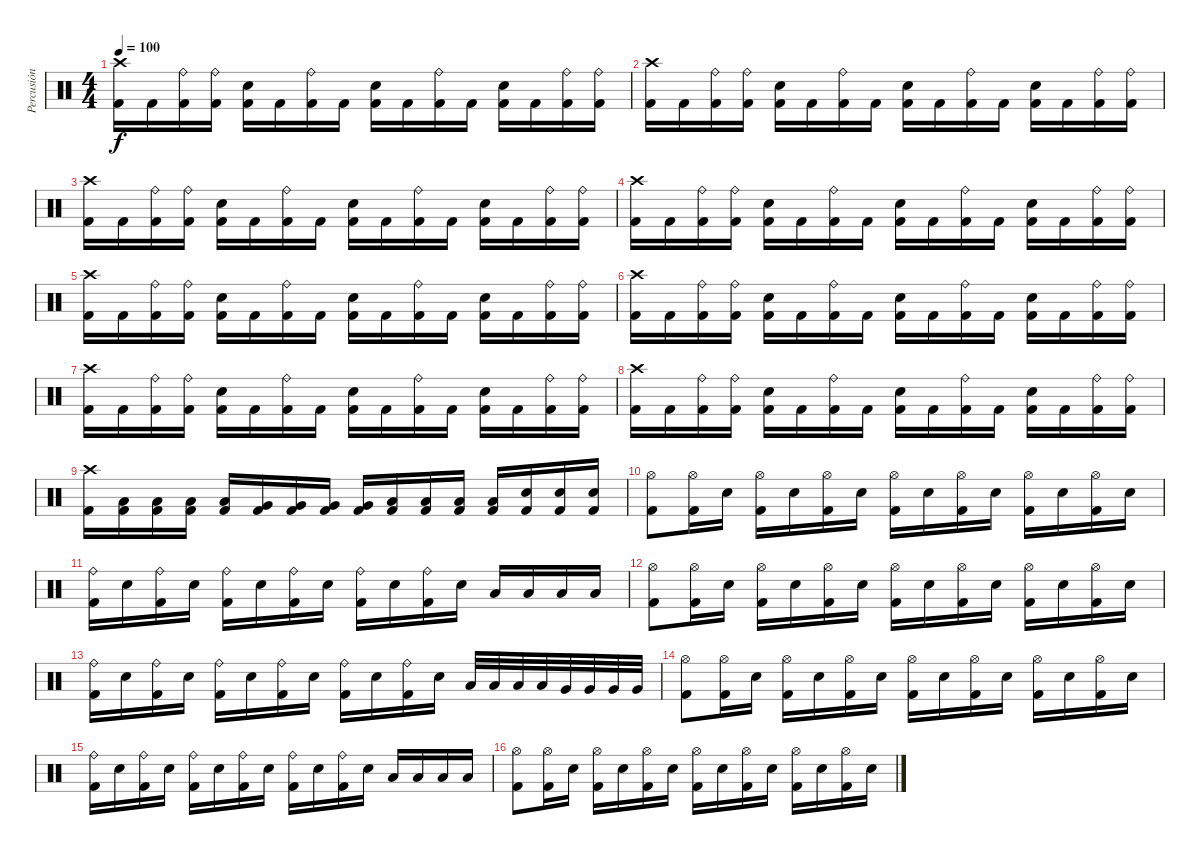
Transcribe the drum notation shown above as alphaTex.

\track ("Percusión" "Percusión") {instrument percussion}
\staff {score}
\articulation defaults
\ts (4 4)
\tempo 100
\clef neutral
\ks c
("Kick (hit) 2" "Crash high (hit)").16{dy f} "Kick (hit) 2".16 ("Kick (hit) 2" "Ride (bell)").16 ("Kick (hit) 2" "Ride (bell)").16 ("Kick (hit) 2" "Snare (hit) 2").16 "Kick (hit) 2".16 ("Kick (hit) 2" "Ride (bell)").16 "Kick (hit) 2".16 ("Kick (hit) 2" "Snare (hit) 2").16 "Kick (hit) 2".16 ("Kick (hit) 2" "Ride (bell)").16 "Kick (hit) 2".16 ("Kick (hit) 2" "Snare (hit) 2").16 "Kick (hit) 2".16 ("Kick (hit) 2" "Ride (bell)").16 ("Kick (hit) 2" "Ride (bell)").16 |
("Kick (hit) 2" "Crash high (hit)").16 "Kick (hit) 2".16 ("Kick (hit) 2" "Ride (bell)").16 ("Kick (hit) 2" "Ride (bell)").16 ("Kick (hit) 2" "Snare (hit) 2").16 "Kick (hit) 2".16 ("Kick (hit) 2" "Ride (bell)").16 "Kick (hit) 2".16 ("Kick (hit) 2" "Snare (hit) 2").16 "Kick (hit) 2".16 ("Kick (hit) 2" "Ride (bell)").16 "Kick (hit) 2".16 ("Kick (hit) 2" "Snare (hit) 2").16 "Kick (hit) 2".16 ("Kick (hit) 2" "Ride (bell)").16 ("Kick (hit) 2" "Ride (bell)").16 |
("Kick (hit) 2" "Crash high (hit)").16 "Kick (hit) 2".16 ("Kick (hit) 2" "Ride (bell)").16 ("Kick (hit) 2" "Ride (bell)").16 ("Kick (hit) 2" "Snare (hit) 2").16 "Kick (hit) 2".16 ("Kick (hit) 2" "Ride (bell)").16 "Kick (hit) 2".16 ("Kick (hit) 2" "Snare (hit) 2").16 "Kick (hit) 2".16 ("Kick (hit) 2" "Ride (bell)").16 "Kick (hit) 2".16 ("Kick (hit) 2" "Snare (hit) 2").16 "Kick (hit) 2".16 ("Kick (hit) 2" "Ride (bell)").16 ("Kick (hit) 2" "Ride (bell)").16 |
("Kick (hit) 2" "Crash high (hit)").16 "Kick (hit) 2".16 ("Kick (hit) 2" "Ride (bell)").16 ("Kick (hit) 2" "Ride (bell)").16 ("Kick (hit) 2" "Snare (hit) 2").16 "Kick (hit) 2".16 ("Kick (hit) 2" "Ride (bell)").16 "Kick (hit) 2".16 ("Kick (hit) 2" "Snare (hit) 2").16 "Kick (hit) 2".16 ("Kick (hit) 2" "Ride (bell)").16 "Kick (hit) 2".16 ("Kick (hit) 2" "Snare (hit) 2").16 "Kick (hit) 2".16 ("Kick (hit) 2" "Ride (bell)").16 ("Kick (hit) 2" "Ride (bell)").16 |
("Kick (hit) 2" "Crash high (hit)").16 "Kick (hit) 2".16 ("Kick (hit) 2" "Ride (bell)").16 ("Kick (hit) 2" "Ride (bell)").16 ("Kick (hit) 2" "Snare (hit) 2").16 "Kick (hit) 2".16 ("Kick (hit) 2" "Ride (bell)").16 "Kick (hit) 2".16 ("Kick (hit) 2" "Snare (hit) 2").16 "Kick (hit) 2".16 ("Kick (hit) 2" "Ride (bell)").16 "Kick (hit) 2".16 ("Kick (hit) 2" "Snare (hit) 2").16 "Kick (hit) 2".16 ("Kick (hit) 2" "Ride (bell)").16 ("Kick (hit) 2" "Ride (bell)").16 |
("Kick (hit) 2" "Crash high (hit)").16 "Kick (hit) 2".16 ("Kick (hit) 2" "Ride (bell)").16 ("Kick (hit) 2" "Ride (bell)").16 ("Kick (hit) 2" "Snare (hit) 2").16 "Kick (hit) 2".16 ("Kick (hit) 2" "Ride (bell)").16 "Kick (hit) 2".16 ("Kick (hit) 2" "Snare (hit) 2").16 "Kick (hit) 2".16 ("Kick (hit) 2" "Ride (bell)").16 "Kick (hit) 2".16 ("Kick (hit) 2" "Snare (hit) 2").16 "Kick (hit) 2".16 ("Kick (hit) 2" "Ride (bell)").16 ("Kick (hit) 2" "Ride (bell)").16 |
("Kick (hit) 2" "Crash high (hit)").16 "Kick (hit) 2".16 ("Kick (hit) 2" "Ride (bell)").16 ("Kick (hit) 2" "Ride (bell)").16 ("Kick (hit) 2" "Snare (hit) 2").16 "Kick (hit) 2".16 ("Kick (hit) 2" "Ride (bell)").16 "Kick (hit) 2".16 ("Kick (hit) 2" "Snare (hit) 2").16 "Kick (hit) 2".16 ("Kick (hit) 2" "Ride (bell)").16 "Kick (hit) 2".16 ("Kick (hit) 2" "Snare (hit) 2").16 "Kick (hit) 2".16 ("Kick (hit) 2" "Ride (bell)").16 ("Kick (hit) 2" "Ride (bell)").16 |
("Kick (hit) 2" "Crash high (hit)").16 "Kick (hit) 2".16 ("Kick (hit) 2" "Ride (bell)").16 ("Kick (hit) 2" "Ride (bell)").16 ("Kick (hit) 2" "Snare (hit) 2").16 "Kick (hit) 2".16 ("Kick (hit) 2" "Ride (bell)").16 "Kick (hit) 2".16 ("Kick (hit) 2" "Snare (hit) 2").16 "Kick (hit) 2".16 ("Kick (hit) 2" "Ride (bell)").16 "Kick (hit) 2".16 ("Kick (hit) 2" "Snare (hit) 2").16 "Kick (hit) 2".16 ("Kick (hit) 2" "Ride (bell)").16 ("Kick (hit) 2" "Ride (bell)").16 |
("Kick (hit) 2" "Crash high (hit)").16 ("Kick (hit) 2" "Low Tom (hit)").16 ("Kick (hit) 2" "Low Tom (hit)").16 ("Kick (hit) 2" "Low Tom (hit)").16 ("Kick (hit) 2" "Low Tom (hit)").16 ("Kick (hit) 2" "Very Low Tom (hit)").16 ("Kick (hit) 2" "Very Low Tom (hit)").16 ("Kick (hit) 2" "Very Low Tom (hit)").16 ("Kick (hit) 2" "Very Low Tom (hit)").16 ("Kick (hit) 2" "Low Floor Tom (hit)").16 ("Kick (hit) 2" "Low Floor Tom (hit)").16 ("Kick (hit) 2" "Low Floor Tom (hit)").16 ("Kick (hit) 2" "Low Floor Tom (hit)").16 ("Kick (hit) 2" "Snare (hit) 2").16 ("Kick (hit) 2" "Snare (hit) 2").16 ("Kick (hit) 2" "Snare (hit) 2").16 |
("Hi-Hat (open)" "Kick (hit) 2").8 ("Hi-Hat (open)" "Kick (hit) 2").16 "Snare (hit) 2".16 ("Hi-Hat (open)" "Kick (hit) 2").16 "Snare (hit) 2".16 ("Hi-Hat (open)" "Kick (hit) 2").16 "Snare (hit) 2".16 ("Hi-Hat (open)" "Kick (hit) 2").16 "Snare (hit) 2".16 ("Hi-Hat (open)" "Kick (hit) 2").16 "Snare (hit) 2".16 ("Hi-Hat (open)" "Kick (hit) 2").16 "Snare (hit) 2".16 ("Hi-Hat (open)" "Kick (hit) 2").16 "Snare (hit) 2".16 |
("Ride (bell)" "Kick (hit) 2").16 "Snare (hit) 2".16 ("Ride (bell)" "Kick (hit) 2").16 "Snare (hit) 2".16 ("Ride (bell)" "Kick (hit) 2").16 "Snare (hit) 2".16 ("Ride (bell)" "Kick (hit) 2").16 "Snare (hit) 2".16 ("Ride (bell)" "Kick (hit) 2").16 "Snare (hit) 2".16 ("Ride (bell)" "Kick (hit) 2").16 "Snare (hit) 2".16 "Low Tom (hit)".16 "Low Tom (hit)".16 "Low Floor Tom (hit)".16 "Low Floor Tom (hit)".16 |
("Hi-Hat (open)" "Kick (hit) 2").8 ("Hi-Hat (open)" "Kick (hit) 2").16 "Snare (hit) 2".16 ("Hi-Hat (open)" "Kick (hit) 2").16 "Snare (hit) 2".16 ("Hi-Hat (open)" "Kick (hit) 2").16 "Snare (hit) 2".16 ("Hi-Hat (open)" "Kick (hit) 2").16 "Snare (hit) 2".16 ("Hi-Hat (open)" "Kick (hit) 2").16 "Snare (hit) 2".16 ("Hi-Hat (open)" "Kick (hit) 2").16 "Snare (hit) 2".16 ("Hi-Hat (open)" "Kick (hit) 2").16 "Snare (hit) 2".16 |
("Ride (bell)" "Kick (hit) 2").16 "Snare (hit) 2".16 ("Ride (bell)" "Kick (hit) 2").16 "Snare (hit) 2".16 ("Ride (bell)" "Kick (hit) 2").16 "Snare (hit) 2".16 ("Ride (bell)" "Kick (hit) 2").16 "Snare (hit) 2".16 ("Ride (bell)" "Kick (hit) 2").16 "Snare (hit) 2".16 ("Ride (bell)" "Kick (hit) 2").16 "Snare (hit) 2".16 "Low Tom (hit)".32 "Low Tom (hit)".32 "Low Tom (hit)".32 "Low Tom (hit)".32 "Very Low Tom (hit)".32 "Very Low Tom (hit)".32 "Very Low Tom (hit)".32 "Very Low Tom (hit)".32 |
("Hi-Hat (open)" "Kick (hit) 2").8 ("Hi-Hat (open)" "Kick (hit) 2").16 "Snare (hit) 2".16 ("Hi-Hat (open)" "Kick (hit) 2").16 "Snare (hit) 2".16 ("Hi-Hat (open)" "Kick (hit) 2").16 "Snare (hit) 2".16 ("Hi-Hat (open)" "Kick (hit) 2").16 "Snare (hit) 2".16 ("Hi-Hat (open)" "Kick (hit) 2").16 "Snare (hit) 2".16 ("Hi-Hat (open)" "Kick (hit) 2").16 "Snare (hit) 2".16 ("Hi-Hat (open)" "Kick (hit) 2").16 "Snare (hit) 2".16 |
("Ride (bell)" "Kick (hit) 2").16 "Snare (hit) 2".16 ("Ride (bell)" "Kick (hit) 2").16 "Snare (hit) 2".16 ("Ride (bell)" "Kick (hit) 2").16 "Snare (hit) 2".16 ("Ride (bell)" "Kick (hit) 2").16 "Snare (hit) 2".16 ("Ride (bell)" "Kick (hit) 2").16 "Snare (hit) 2".16 ("Ride (bell)" "Kick (hit) 2").16 "Snare (hit) 2".16 "Low Tom (hit)".16 "Low Tom (hit)".16 "Low Floor Tom (hit)".16 "Low Floor Tom (hit)".16 |
("Hi-Hat (open)" "Kick (hit) 2").8 ("Hi-Hat (open)" "Kick (hit) 2").16 "Snare (hit) 2".16 ("Hi-Hat (open)" "Kick (hit) 2").16 "Snare (hit) 2".16 ("Hi-Hat (open)" "Kick (hit) 2").16 "Snare (hit) 2".16 ("Hi-Hat (open)" "Kick (hit) 2").16 "Snare (hit) 2".16 ("Hi-Hat (open)" "Kick (hit) 2").16 "Snare (hit) 2".16 ("Hi-Hat (open)" "Kick (hit) 2").16 "Snare (hit) 2".16 ("Hi-Hat (open)" "Kick (hit) 2").16 "Snare (hit) 2".16
